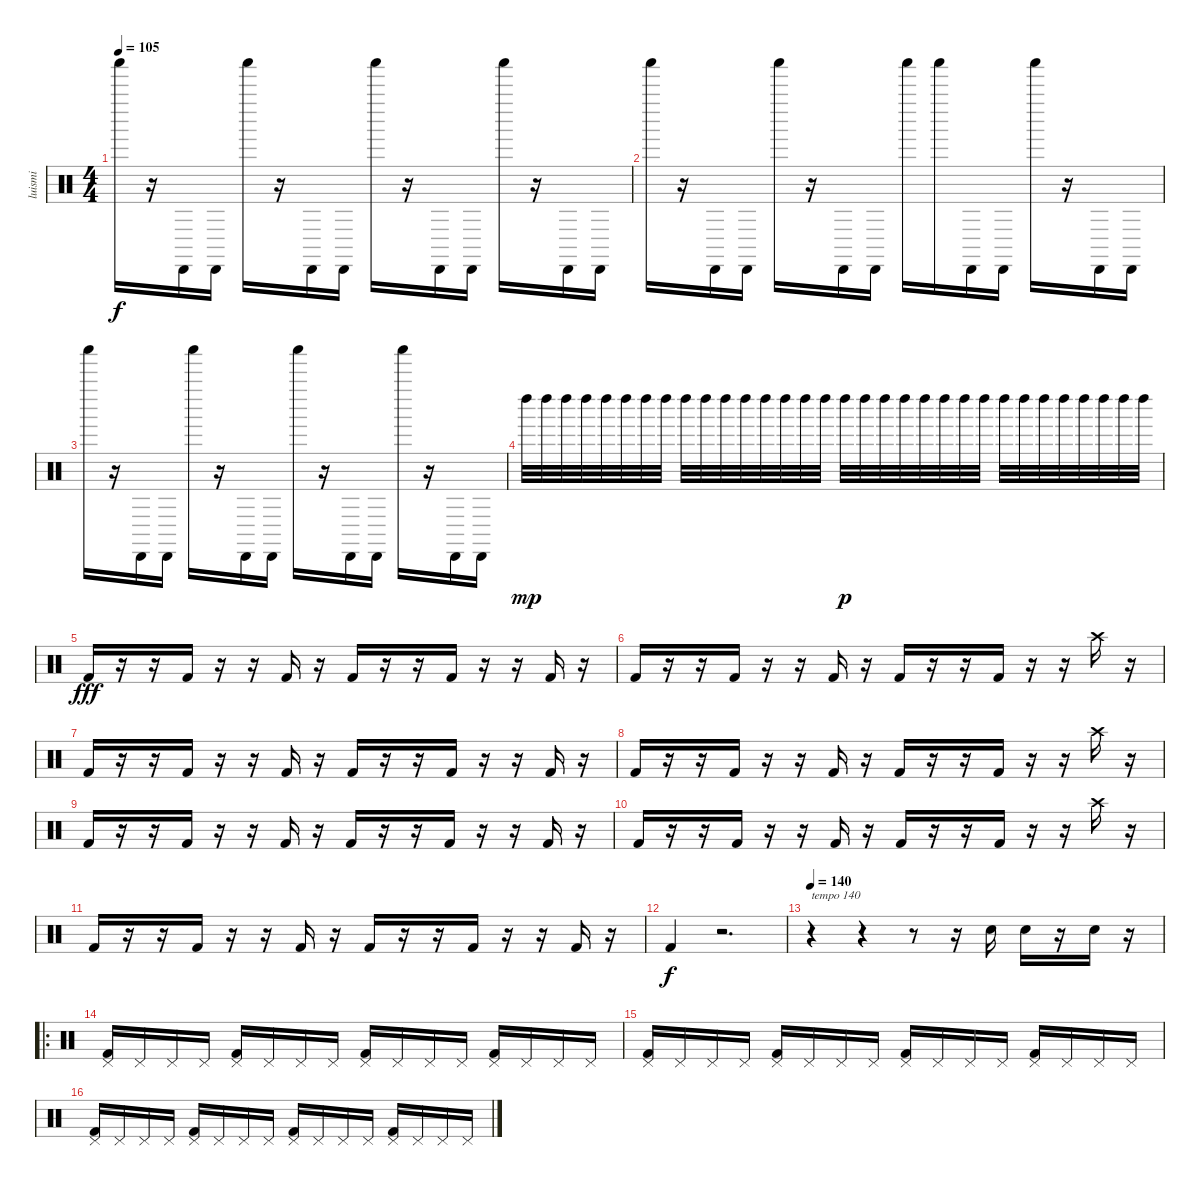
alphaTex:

\track ("luismi" "luismi") {instrument percussion}
\staff {score}
\articulation defaults
\ts (4 4)
\tempo 105
\clef neutral
\ks c "Shaker (hit)".16{dy f}
r.16 "Cabasa (hit)".16 "Cabasa (hit)".16 "Shaker (hit)".16 r.16 "Cabasa (hit)".16 "Cabasa (hit)".16 "Shaker (hit)".16 r.16 "Cabasa (hit)".16 "Cabasa (hit)".16 "Shaker (hit)".16 r.16 "Cabasa (hit)".16 "Cabasa (hit)".16 |
"Shaker (hit)".16 r.16 "Cabasa (hit)".16 "Cabasa (hit)".16 "Shaker (hit)".16 r.16 "Cabasa (hit)".16 "Cabasa (hit)".16 "Shaker (hit)".16 "Shaker (hit)".16 "Cabasa (hit)".16 "Cabasa (hit)".16 "Shaker (hit)".16 r.16 "Cabasa (hit)".16 "Cabasa (hit)".16 |
"Shaker (hit)".16 r.16 "Cabasa (hit)".16 "Cabasa (hit)".16 "Shaker (hit)".16 r.16 "Cabasa (hit)".16 "Cabasa (hit)".16 "Shaker (hit)".16 r.16 "Cabasa (hit)".16 "Cabasa (hit)".16 "Shaker (hit)".16 r.16 "Cabasa (hit)".16 "Cabasa (hit)".16 |
"Left Maraca (hit)".32{dy mp} "Left Maraca (hit)".32 "Left Maraca (hit)".32 "Left Maraca (hit)".32 "Left Maraca (hit)".32 "Left Maraca (hit)".32 "Left Maraca (hit)".32 "Left Maraca (hit)".32 "Left Maraca (hit)".32 "Left Maraca (hit)".32 "Left Maraca (hit)".32 "Left Maraca (hit)".32 "Left Maraca (hit)".32 "Left Maraca (hit)".32 "Left Maraca (hit)".32 "Left Maraca (hit)".32 "Left Maraca (hit)".32{dy p} "Left Maraca (hit)".32 "Left Maraca (hit)".32 "Left Maraca (hit)".32 "Left Maraca (hit)".32 "Left Maraca (hit)".32 "Left Maraca (hit)".32 "Left Maraca (hit)".32 "Left Maraca (hit)".32 "Left Maraca (hit)".32 "Left Maraca (hit)".32 "Left Maraca (hit)".32 "Left Maraca (hit)".32 "Left Maraca (hit)".32 "Left Maraca (hit)".32 "Left Maraca (hit)".32 |
"Kick (hit) 2".16{dy fff volume 12} r.16 r.16 "Kick (hit) 2".16 r.16 r.16 "Kick (hit) 2".16 r.16 "Kick (hit) 2".16 r.16 r.16 "Kick (hit) 2".16 r.16 r.16 "Kick (hit) 2".16 r.16 |
"Kick (hit) 2".16 r.16 r.16 "Kick (hit) 2".16 r.16 r.16 "Kick (hit) 2".16 r.16 "Kick (hit) 2".16 r.16 r.16 "Kick (hit) 2".16 r.16 r.16 "Crash high (hit)".16 r.16 |
"Kick (hit) 2".16 r.16 r.16 "Kick (hit) 2".16 r.16 r.16 "Kick (hit) 2".16 r.16 "Kick (hit) 2".16 r.16 r.16 "Kick (hit) 2".16 r.16 r.16 "Kick (hit) 2".16 r.16 |
"Kick (hit) 2".16 r.16 r.16 "Kick (hit) 2".16 r.16 r.16 "Kick (hit) 2".16 r.16 "Kick (hit) 2".16 r.16 r.16 "Kick (hit) 2".16 r.16 r.16 "Crash high (hit)".16 r.16 |
"Kick (hit) 2".16 r.16 r.16 "Kick (hit) 2".16 r.16 r.16 "Kick (hit) 2".16 r.16 "Kick (hit) 2".16 r.16 r.16 "Kick (hit) 2".16 r.16 r.16 "Kick (hit) 2".16 r.16 |
"Kick (hit) 2".16 r.16 r.16 "Kick (hit) 2".16 r.16 r.16 "Kick (hit) 2".16 r.16 "Kick (hit) 2".16 r.16 r.16 "Kick (hit) 2".16 r.16 r.16 "Crash high (hit)".16 r.16 |
"Kick (hit) 2".16 r.16 r.16 "Kick (hit) 2".16 r.16 r.16 "Kick (hit) 2".16 r.16 "Kick (hit) 2".16 r.16 r.16 "Kick (hit) 2".16 r.16 r.16 "Kick (hit) 2".16 r.16 |
"Kick (hit) 2".4{dy f} r.2{d} |
\tempo 140
r.4{txt "tempo 140"} r.4 r.8 r.16 "Electric Snare (hit)".16 "Electric Snare (hit)".16 r.16 "Electric Snare (hit)".16 r.16 |
\ro
("Kick (hit) 2" "Pedal Hi-Hat (hit)").16 "Pedal Hi-Hat (hit)".16 "Pedal Hi-Hat (hit)".16 "Pedal Hi-Hat (hit)".16 ("Kick (hit) 2" "Pedal Hi-Hat (hit)").16 "Pedal Hi-Hat (hit)".16 "Pedal Hi-Hat (hit)".16 "Pedal Hi-Hat (hit)".16 ("Kick (hit) 2" "Pedal Hi-Hat (hit)").16 "Pedal Hi-Hat (hit)".16 "Pedal Hi-Hat (hit)".16 "Pedal Hi-Hat (hit)".16 ("Kick (hit) 2" "Pedal Hi-Hat (hit)").16 "Pedal Hi-Hat (hit)".16 "Pedal Hi-Hat (hit)".16 "Pedal Hi-Hat (hit)".16 |
("Kick (hit) 2" "Pedal Hi-Hat (hit)").16 "Pedal Hi-Hat (hit)".16 "Pedal Hi-Hat (hit)".16 "Pedal Hi-Hat (hit)".16 ("Kick (hit) 2" "Pedal Hi-Hat (hit)").16 "Pedal Hi-Hat (hit)".16 "Pedal Hi-Hat (hit)".16 "Pedal Hi-Hat (hit)".16 ("Kick (hit) 2" "Pedal Hi-Hat (hit)").16 "Pedal Hi-Hat (hit)".16 "Pedal Hi-Hat (hit)".16 "Pedal Hi-Hat (hit)".16 ("Kick (hit) 2" "Pedal Hi-Hat (hit)").16 "Pedal Hi-Hat (hit)".16 "Pedal Hi-Hat (hit)".16 "Pedal Hi-Hat (hit)".16 |
("Kick (hit) 2" "Pedal Hi-Hat (hit)").16 "Pedal Hi-Hat (hit)".16 "Pedal Hi-Hat (hit)".16 "Pedal Hi-Hat (hit)".16 ("Kick (hit) 2" "Pedal Hi-Hat (hit)").16 "Pedal Hi-Hat (hit)".16 "Pedal Hi-Hat (hit)".16 "Pedal Hi-Hat (hit)".16 ("Kick (hit) 2" "Pedal Hi-Hat (hit)").16 "Pedal Hi-Hat (hit)".16 "Pedal Hi-Hat (hit)".16 "Pedal Hi-Hat (hit)".16 ("Kick (hit) 2" "Pedal Hi-Hat (hit)").16 "Pedal Hi-Hat (hit)".16 "Pedal Hi-Hat (hit)".16 "Pedal Hi-Hat (hit)".16
